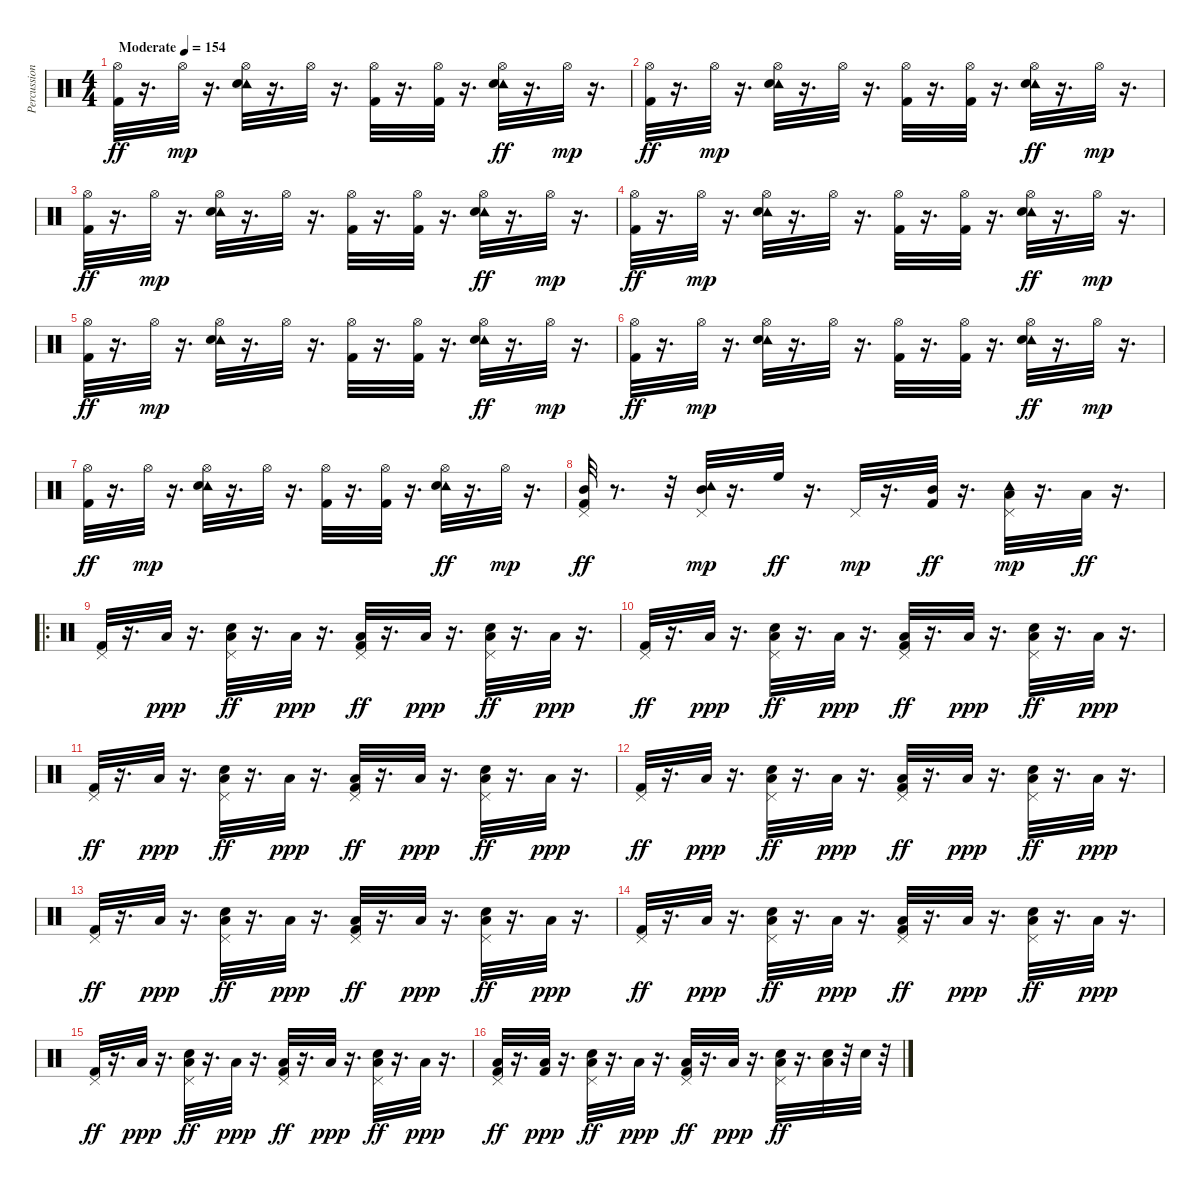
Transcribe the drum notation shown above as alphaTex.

\track ("Percussions" "Percussion") {instrument percussion}
\staff {score}
\articulation defaults
\ts (4 4)
\tempo (154 "Moderate")
\clef neutral
\ks c
("Hi-Hat (open)" "Kick (hit) 2").32{dy ff} r.16{d} "Hi-Hat (open)".32{dy mp} r.16{d} ("Hi-Hat (open)" "Tambourine (hit)" "Snare (hit) 2").32 r.16{d} "Hi-Hat (open)".32 r.16{d} ("Hi-Hat (open)" "Kick (hit) 2").32 r.16{d} ("Hi-Hat (open)" "Kick (hit) 2").32 r.16{d} ("Hi-Hat (open)" "Tambourine (hit)" "Snare (hit) 2").32{dy ff} r.16{d} "Hi-Hat (open)".32{dy mp} r.16{d} |
("Hi-Hat (open)" "Kick (hit) 2").32{dy ff} r.16{d} "Hi-Hat (open)".32{dy mp} r.16{d} ("Hi-Hat (open)" "Tambourine (hit)" "Snare (hit) 2").32 r.16{d} "Hi-Hat (open)".32 r.16{d} ("Hi-Hat (open)" "Kick (hit) 2").32 r.16{d} ("Hi-Hat (open)" "Kick (hit) 2").32 r.16{d} ("Hi-Hat (open)" "Tambourine (hit)" "Snare (hit) 2").32{dy ff} r.16{d} "Hi-Hat (open)".32{dy mp} r.16{d} |
("Hi-Hat (open)" "Kick (hit) 2").32{dy ff} r.16{d} "Hi-Hat (open)".32{dy mp} r.16{d} ("Hi-Hat (open)" "Tambourine (hit)" "Snare (hit) 2").32 r.16{d} "Hi-Hat (open)".32 r.16{d} ("Hi-Hat (open)" "Kick (hit) 2").32 r.16{d} ("Hi-Hat (open)" "Kick (hit) 2").32 r.16{d} ("Hi-Hat (open)" "Tambourine (hit)" "Snare (hit) 2").32{dy ff} r.16{d} "Hi-Hat (open)".32{dy mp} r.16{d} |
("Hi-Hat (open)" "Kick (hit) 2").32{dy ff} r.16{d} "Hi-Hat (open)".32{dy mp} r.16{d} ("Hi-Hat (open)" "Tambourine (hit)" "Snare (hit) 2").32 r.16{d} "Hi-Hat (open)".32 r.16{d} ("Hi-Hat (open)" "Kick (hit) 2").32 r.16{d} ("Hi-Hat (open)" "Kick (hit) 2").32 r.16{d} ("Hi-Hat (open)" "Tambourine (hit)" "Snare (hit) 2").32{dy ff} r.16{d} "Hi-Hat (open)".32{dy mp} r.16{d} |
("Hi-Hat (open)" "Kick (hit) 2").32{dy ff} r.16{d} "Hi-Hat (open)".32{dy mp} r.16{d} ("Hi-Hat (open)" "Tambourine (hit)" "Snare (hit) 2").32 r.16{d} "Hi-Hat (open)".32 r.16{d} ("Hi-Hat (open)" "Kick (hit) 2").32 r.16{d} ("Hi-Hat (open)" "Kick (hit) 2").32 r.16{d} ("Hi-Hat (open)" "Tambourine (hit)" "Snare (hit) 2").32{dy ff} r.16{d} "Hi-Hat (open)".32{dy mp} r.16{d} |
("Hi-Hat (open)" "Kick (hit) 2").32{dy ff} r.16{d} "Hi-Hat (open)".32{dy mp} r.16{d} ("Hi-Hat (open)" "Tambourine (hit)" "Snare (hit) 2").32 r.16{d} "Hi-Hat (open)".32 r.16{d} ("Hi-Hat (open)" "Kick (hit) 2").32 r.16{d} ("Hi-Hat (open)" "Kick (hit) 2").32 r.16{d} ("Hi-Hat (open)" "Tambourine (hit)" "Snare (hit) 2").32{dy ff} r.16{d} "Hi-Hat (open)".32{dy mp} r.16{d} |
("Hi-Hat (open)" "Kick (hit) 2").32{dy ff} r.16{d} "Hi-Hat (open)".32{dy mp} r.16{d} ("Hi-Hat (open)" "Tambourine (hit)" "Snare (hit) 2").32 r.16{d} "Hi-Hat (open)".32 r.16{d} ("Hi-Hat (open)" "Kick (hit) 2").32 r.16{d} ("Hi-Hat (open)" "Kick (hit) 2").32 r.16{d} ("Hi-Hat (open)" "Tambourine (hit)" "Snare (hit) 2").32{dy ff} r.16{d} "Hi-Hat (open)".32{dy mp} r.16{d} |
("Mid Tom (hit)" "Pedal Hi-Hat (hit)" "Kick (hit) 2").32{dy ff} r.8{d} r.32 ("Mid Tom (hit)" "Tambourine (hit)" "Pedal Hi-Hat (hit)").32{dy mp} r.16{d} "High Floor Tom (hit)".32{dy ff} r.16{d} "Pedal Hi-Hat (hit)".32{dy mp} r.16{d} ("Mid Tom (hit)" "Kick (hit) 2").32{dy ff} r.16{d} ("Low Tom (hit)" "Tambourine (hit)" "Pedal Hi-Hat (hit)").32{dy mp} r.16{d} "Low Tom (hit)".32{dy ff} r.16{d} |
\ro
("Pedal Hi-Hat (hit)" "Kick (hit) 2").32 r.16{d} "Low Tom (hit)".32{dy ppp} r.16{d} ("Pedal Hi-Hat (hit)" "Low Tom (hit)" "Snare (hit) 2").32{dy ff} r.16{d} "Low Tom (hit)".32{dy ppp} r.16{d} ("Pedal Hi-Hat (hit)" "Low Tom (hit)" "Kick (hit) 2").32{dy ff} r.16{d} "Low Tom (hit)".32{dy ppp} r.16{d} ("Pedal Hi-Hat (hit)" "Low Tom (hit)" "Snare (hit) 2").32{dy ff} r.16{d} "Low Tom (hit)".32{dy ppp} r.16{d} |
("Pedal Hi-Hat (hit)" "Kick (hit) 2").32{dy ff} r.16{d} "Low Tom (hit)".32{dy ppp} r.16{d} ("Pedal Hi-Hat (hit)" "Low Tom (hit)" "Snare (hit) 2").32{dy ff} r.16{d} "Low Tom (hit)".32{dy ppp} r.16{d} ("Pedal Hi-Hat (hit)" "Low Tom (hit)" "Kick (hit) 2").32{dy ff} r.16{d} "Low Tom (hit)".32{dy ppp} r.16{d} ("Pedal Hi-Hat (hit)" "Low Tom (hit)" "Snare (hit) 2").32{dy ff} r.16{d} "Low Tom (hit)".32{dy ppp} r.16{d} |
("Pedal Hi-Hat (hit)" "Kick (hit) 2").32{dy ff} r.16{d} "Low Tom (hit)".32{dy ppp} r.16{d} ("Pedal Hi-Hat (hit)" "Low Tom (hit)" "Snare (hit) 2").32{dy ff} r.16{d} "Low Tom (hit)".32{dy ppp} r.16{d} ("Pedal Hi-Hat (hit)" "Low Tom (hit)" "Kick (hit) 2").32{dy ff} r.16{d} "Low Tom (hit)".32{dy ppp} r.16{d} ("Pedal Hi-Hat (hit)" "Low Tom (hit)" "Snare (hit) 2").32{dy ff} r.16{d} "Low Tom (hit)".32{dy ppp} r.16{d} |
("Pedal Hi-Hat (hit)" "Kick (hit) 2").32{dy ff} r.16{d} "Low Tom (hit)".32{dy ppp} r.16{d} ("Pedal Hi-Hat (hit)" "Low Tom (hit)" "Snare (hit) 2").32{dy ff} r.16{d} "Low Tom (hit)".32{dy ppp} r.16{d} ("Pedal Hi-Hat (hit)" "Low Tom (hit)" "Kick (hit) 2").32{dy ff} r.16{d} "Low Tom (hit)".32{dy ppp} r.16{d} ("Pedal Hi-Hat (hit)" "Low Tom (hit)" "Snare (hit) 2").32{dy ff} r.16{d} "Low Tom (hit)".32{dy ppp} r.16{d} |
("Pedal Hi-Hat (hit)" "Kick (hit) 2").32{dy ff} r.16{d} "Low Tom (hit)".32{dy ppp} r.16{d} ("Pedal Hi-Hat (hit)" "Low Tom (hit)" "Snare (hit) 2").32{dy ff} r.16{d} "Low Tom (hit)".32{dy ppp} r.16{d} ("Pedal Hi-Hat (hit)" "Low Tom (hit)" "Kick (hit) 2").32{dy ff} r.16{d} "Low Tom (hit)".32{dy ppp} r.16{d} ("Pedal Hi-Hat (hit)" "Low Tom (hit)" "Snare (hit) 2").32{dy ff} r.16{d} "Low Tom (hit)".32{dy ppp} r.16{d} |
("Pedal Hi-Hat (hit)" "Kick (hit) 2").32{dy ff} r.16{d} "Low Tom (hit)".32{dy ppp} r.16{d} ("Pedal Hi-Hat (hit)" "Low Tom (hit)" "Snare (hit) 2").32{dy ff} r.16{d} "Low Tom (hit)".32{dy ppp} r.16{d} ("Pedal Hi-Hat (hit)" "Low Tom (hit)" "Kick (hit) 2").32{dy ff} r.16{d} "Low Tom (hit)".32{dy ppp} r.16{d} ("Pedal Hi-Hat (hit)" "Low Tom (hit)" "Snare (hit) 2").32{dy ff} r.16{d} "Low Tom (hit)".32{dy ppp} r.16{d} |
("Pedal Hi-Hat (hit)" "Kick (hit) 2").32{dy ff} r.16{d} "Low Tom (hit)".32{dy ppp} r.16{d} ("Pedal Hi-Hat (hit)" "Low Tom (hit)" "Snare (hit) 2").32{dy ff} r.16{d} "Low Tom (hit)".32{dy ppp} r.16{d} ("Pedal Hi-Hat (hit)" "Low Tom (hit)" "Kick (hit) 2").32{dy ff} r.16{d} "Low Tom (hit)".32{dy ppp} r.16{d} ("Pedal Hi-Hat (hit)" "Low Tom (hit)" "Snare (hit) 2").32{dy ff} r.16{d} "Low Tom (hit)".32{dy ppp} r.16{d} |
("Pedal Hi-Hat (hit)" "Low Tom (hit)" "Kick (hit) 2").32{dy ff} r.16{d} ("Low Tom (hit)" "Kick (hit) 2").32{dy ppp} r.16{d} ("Pedal Hi-Hat (hit)" "Low Tom (hit)" "Snare (hit) 2").32{dy ff} r.16{d} "Low Tom (hit)".32{dy ppp} r.16{d} ("Pedal Hi-Hat (hit)" "Low Tom (hit)" "Kick (hit) 2").32{dy ff} r.16{d} "Low Tom (hit)".32{dy ppp} r.16{d} ("Pedal Hi-Hat (hit)" "Low Tom (hit)" "Snare (hit) 2").32{dy ff} r.16{d} ("Low Tom (hit)" "Snare (hit) 2").32 r.32 "Snare (hit) 2".32 r.32
